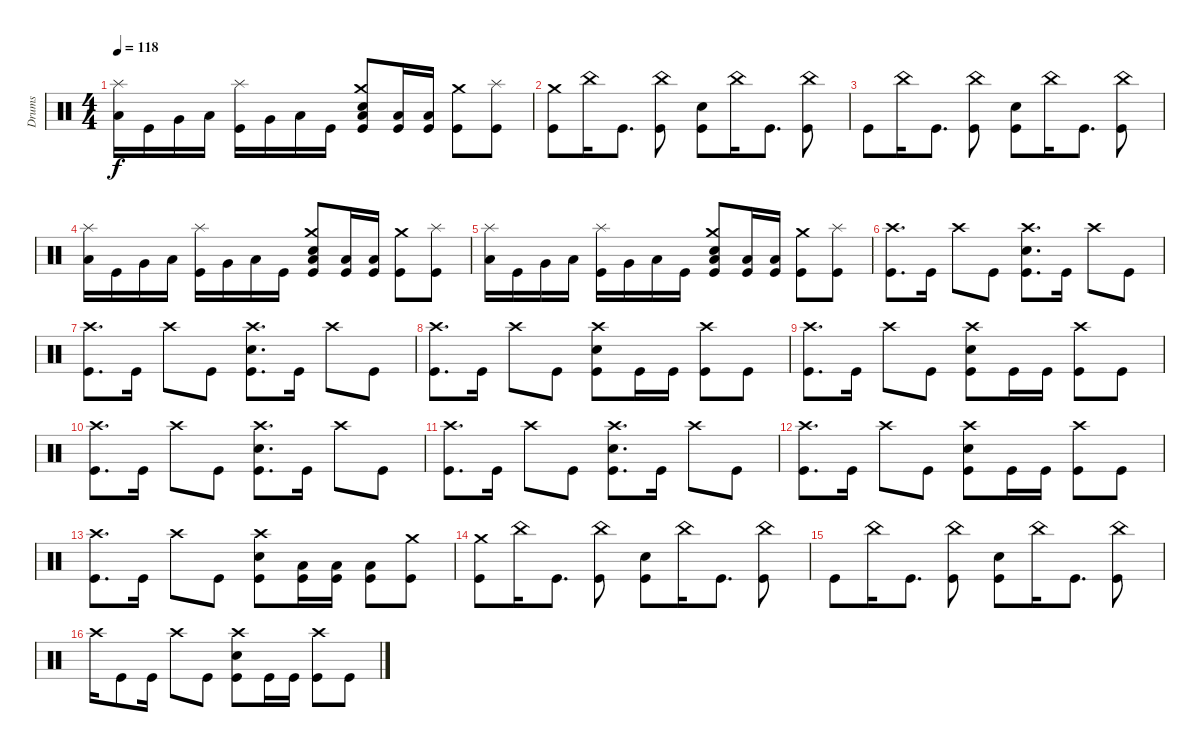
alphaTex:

\track ("Drums" "Drums") {instrument percussion}
\staff {score}
\articulation defaults
\ts (4 4)
\tempo 118
\clef neutral
\ks c
("Splash (hit)" "Low Floor Tom (hit)").16{dy f} "Kick (hit)".16 "Very Low Tom (hit)".16 "Low Floor Tom (hit)".16 ("Splash (hit)" "Kick (hit)").16 "Very Low Tom (hit)".16 "Low Floor Tom (hit)".16 "Kick (hit)".16 ("Crash medium (hit)" "Snare (hit) 2" "Low Floor Tom (hit)" "Kick (hit)").8 ("Low Tom (hit)" "Kick (hit)").16 ("Low Tom (hit)" "Kick (hit)").16 ("Crash medium (hit)" "Kick (hit)").8 ("Splash (hit)" "Kick (hit)").8 |
("Crash medium (hit)" "Kick (hit)").8 "China (hit)".16 "Kick (hit)".8{d} ("China (hit)" "Kick (hit)").8 ("Snare (hit) 2" "Kick (hit)").8 "China (hit)".16 "Kick (hit)".8{d} ("China (hit)" "Kick (hit)").8 |
"Kick (hit)".8 "China (hit)".16 "Kick (hit)".8{d} ("China (hit)" "Kick (hit)").8 ("Snare (hit) 2" "Kick (hit)").8 "China (hit)".16 "Kick (hit)".8{d} ("China (hit)" "Kick (hit)").8 |
("Splash (hit)" "Low Floor Tom (hit)").16 "Kick (hit)".16 "Very Low Tom (hit)".16 "Low Floor Tom (hit)".16 ("Splash (hit)" "Kick (hit)").16 "Very Low Tom (hit)".16 "Low Floor Tom (hit)".16 "Kick (hit)".16 ("Crash medium (hit)" "Snare (hit) 2" "Low Floor Tom (hit)" "Kick (hit)").8 ("Low Tom (hit)" "Kick (hit)").16 ("Low Tom (hit)" "Kick (hit)").16 ("Crash medium (hit)" "Kick (hit)").8 ("Splash (hit)" "Kick (hit)").8 |
("Splash (hit)" "Low Floor Tom (hit)").16 "Kick (hit)".16 "Very Low Tom (hit)".16 "Low Floor Tom (hit)".16 ("Splash (hit)" "Kick (hit)").16 "Very Low Tom (hit)".16 "Low Floor Tom (hit)".16 "Kick (hit)".16 ("Crash medium (hit)" "Snare (hit) 2" "Low Floor Tom (hit)" "Kick (hit)").8 ("Low Tom (hit)" "Kick (hit)").16 ("Low Tom (hit)" "Kick (hit)").16 ("Crash medium (hit)" "Kick (hit)").8 ("Splash (hit)" "Kick (hit)").8 |
("Crash high (hit)" "Kick (hit)").8{d} "Kick (hit)".16 "Crash high (hit)".8 "Kick (hit)".8 ("Crash high (hit)" "Snare (hit) 2" "Kick (hit)").8{d} "Kick (hit)".16 "Crash high (hit)".8 "Kick (hit)".8 |
("Crash high (hit)" "Kick (hit)").8{d} "Kick (hit)".16 "Crash high (hit)".8 "Kick (hit)".8 ("Crash high (hit)" "Snare (hit) 2" "Kick (hit)").8{d} "Kick (hit)".16 "Crash high (hit)".8 "Kick (hit)".8 |
("Crash high (hit)" "Kick (hit)").8{d} "Kick (hit)".16 "Crash high (hit)".8 "Kick (hit)".8 ("Crash high (hit)" "Snare (hit) 2" "Kick (hit)").8 "Kick (hit)".16 "Kick (hit)".16 ("Crash high (hit)" "Kick (hit)").8 "Kick (hit)".8 |
("Crash high (hit)" "Kick (hit)").8{d} "Kick (hit)".16 "Crash high (hit)".8 "Kick (hit)".8 ("Crash high (hit)" "Snare (hit) 2" "Kick (hit)").8 "Kick (hit)".16 "Kick (hit)".16 ("Crash high (hit)" "Kick (hit)").8 "Kick (hit)".8 |
("Crash high (hit)" "Kick (hit)").8{d} "Kick (hit)".16 "Crash high (hit)".8 "Kick (hit)".8 ("Crash high (hit)" "Snare (hit) 2" "Kick (hit)").8{d} "Kick (hit)".16 "Crash high (hit)".8 "Kick (hit)".8 |
("Crash high (hit)" "Kick (hit)").8{d} "Kick (hit)".16 "Crash high (hit)".8 "Kick (hit)".8 ("Crash high (hit)" "Snare (hit) 2" "Kick (hit)").8{d} "Kick (hit)".16 "Crash high (hit)".8 "Kick (hit)".8 |
("Crash high (hit)" "Kick (hit)").8{d} "Kick (hit)".16 "Crash high (hit)".8 "Kick (hit)".8 ("Crash high (hit)" "Snare (hit) 2" "Kick (hit)").8 "Kick (hit)".16 "Kick (hit)".16 ("Crash high (hit)" "Kick (hit)").8 "Kick (hit)".8 |
("Crash high (hit)" "Kick (hit)").8{d} "Kick (hit)".16 "Crash high (hit)".8 "Kick (hit)".8 ("Crash high (hit)" "Snare (hit) 2" "Kick (hit)").8 ("Low Tom (hit)" "Kick (hit)").16 ("Low Tom (hit)" "Kick (hit)").16 ("Low Tom (hit)" "Kick (hit)").8 ("Crash medium (hit)" "Kick (hit)").8 |
("Crash medium (hit)" "Kick (hit)").8 "China (hit)".16 "Kick (hit)".8{d} ("China (hit)" "Kick (hit)").8 ("Snare (hit) 2" "Kick (hit)").8 "China (hit)".16 "Kick (hit)".8{d} ("China (hit)" "Kick (hit)").8 |
"Kick (hit)".8 "China (hit)".16 "Kick (hit)".8{d} ("China (hit)" "Kick (hit)").8 ("Snare (hit) 2" "Kick (hit)").8 "China (hit)".16 "Kick (hit)".8{d} ("China (hit)" "Kick (hit)").8 |
"Crash high (hit)".16 "Kick (hit)".8 "Kick (hit)".16 "Crash high (hit)".8 "Kick (hit)".8 ("Crash high (hit)" "Snare (hit) 2" "Kick (hit)").8 "Kick (hit)".16 "Kick (hit)".16 ("Crash high (hit)" "Kick (hit)").8 "Kick (hit)".8
